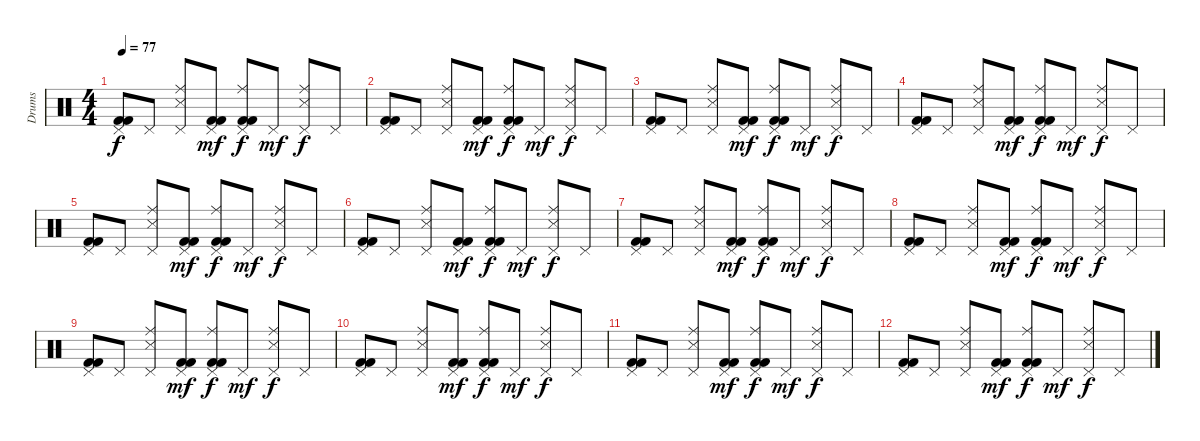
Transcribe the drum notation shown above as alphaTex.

\track ("Drums" "Drums") {instrument percussion}
\staff {score}
\articulation defaults
\ts (4 4)
\tempo 77
\clef neutral
\ks c
("Pedal Hi-Hat (hit)" "Kick (hit) 2" "Kick (hit) 2").8{dy f} "Pedal Hi-Hat (hit)".8 ("Pedal Hi-Hat (hit)" "Ride (middle)" "Snare (side stick) 3").8 ("Pedal Hi-Hat (hit)" "Kick (hit) 2" "Kick (hit) 2").8{dy mf} ("Pedal Hi-Hat (hit)" "Ride (middle)" "Kick (hit) 2" "Kick (hit) 2").8{dy f} "Pedal Hi-Hat (hit)".8{dy mf} ("Pedal Hi-Hat (hit)" "Ride (middle)" "Snare (side stick) 3").8{dy f} "Pedal Hi-Hat (hit)".8 |
("Pedal Hi-Hat (hit)" "Kick (hit) 2" "Kick (hit) 2").8 "Pedal Hi-Hat (hit)".8 ("Pedal Hi-Hat (hit)" "Ride (middle)" "Snare (side stick) 3").8 ("Pedal Hi-Hat (hit)" "Kick (hit) 2" "Kick (hit) 2").8{dy mf} ("Pedal Hi-Hat (hit)" "Ride (middle)" "Kick (hit) 2" "Kick (hit) 2").8{dy f} "Pedal Hi-Hat (hit)".8{dy mf} ("Pedal Hi-Hat (hit)" "Ride (middle)" "Snare (side stick) 3").8{dy f} "Pedal Hi-Hat (hit)".8 |
("Pedal Hi-Hat (hit)" "Kick (hit) 2" "Kick (hit) 2").8 "Pedal Hi-Hat (hit)".8 ("Pedal Hi-Hat (hit)" "Ride (middle)" "Snare (side stick) 3").8 ("Pedal Hi-Hat (hit)" "Kick (hit) 2" "Kick (hit) 2").8{dy mf} ("Pedal Hi-Hat (hit)" "Ride (middle)" "Kick (hit) 2" "Kick (hit) 2").8{dy f} "Pedal Hi-Hat (hit)".8{dy mf} ("Pedal Hi-Hat (hit)" "Ride (middle)" "Snare (side stick) 3").8{dy f} "Pedal Hi-Hat (hit)".8 |
("Pedal Hi-Hat (hit)" "Kick (hit) 2" "Kick (hit) 2").8 "Pedal Hi-Hat (hit)".8 ("Pedal Hi-Hat (hit)" "Ride (middle)" "Snare (side stick) 3").8 ("Pedal Hi-Hat (hit)" "Kick (hit) 2" "Kick (hit) 2").8{dy mf} ("Pedal Hi-Hat (hit)" "Ride (middle)" "Kick (hit) 2" "Kick (hit) 2").8{dy f} "Pedal Hi-Hat (hit)".8{dy mf} ("Pedal Hi-Hat (hit)" "Ride (middle)" "Snare (side stick) 3").8{dy f} "Pedal Hi-Hat (hit)".8 |
("Pedal Hi-Hat (hit)" "Kick (hit) 2" "Kick (hit) 2").8 "Pedal Hi-Hat (hit)".8 ("Pedal Hi-Hat (hit)" "Ride (middle)" "Snare (side stick) 3").8 ("Pedal Hi-Hat (hit)" "Kick (hit) 2" "Kick (hit) 2").8{dy mf} ("Pedal Hi-Hat (hit)" "Ride (middle)" "Kick (hit) 2" "Kick (hit) 2").8{dy f} "Pedal Hi-Hat (hit)".8{dy mf} ("Pedal Hi-Hat (hit)" "Ride (middle)" "Snare (side stick) 3").8{dy f} "Pedal Hi-Hat (hit)".8 |
("Pedal Hi-Hat (hit)" "Kick (hit) 2" "Kick (hit) 2").8 "Pedal Hi-Hat (hit)".8 ("Pedal Hi-Hat (hit)" "Ride (middle)" "Snare (side stick) 3").8 ("Pedal Hi-Hat (hit)" "Kick (hit) 2" "Kick (hit) 2").8{dy mf} ("Pedal Hi-Hat (hit)" "Ride (middle)" "Kick (hit) 2" "Kick (hit) 2").8{dy f} "Pedal Hi-Hat (hit)".8{dy mf} ("Pedal Hi-Hat (hit)" "Ride (middle)" "Snare (side stick) 3").8{dy f} "Pedal Hi-Hat (hit)".8 |
("Pedal Hi-Hat (hit)" "Kick (hit) 2" "Kick (hit) 2").8 "Pedal Hi-Hat (hit)".8 ("Pedal Hi-Hat (hit)" "Ride (middle)" "Snare (side stick) 3").8 ("Pedal Hi-Hat (hit)" "Kick (hit) 2" "Kick (hit) 2").8{dy mf} ("Pedal Hi-Hat (hit)" "Ride (middle)" "Kick (hit) 2" "Kick (hit) 2").8{dy f} "Pedal Hi-Hat (hit)".8{dy mf} ("Pedal Hi-Hat (hit)" "Ride (middle)" "Snare (side stick) 3").8{dy f} "Pedal Hi-Hat (hit)".8 |
("Pedal Hi-Hat (hit)" "Kick (hit) 2" "Kick (hit) 2").8 "Pedal Hi-Hat (hit)".8 ("Pedal Hi-Hat (hit)" "Ride (middle)" "Snare (side stick) 3").8 ("Pedal Hi-Hat (hit)" "Kick (hit) 2" "Kick (hit) 2").8{dy mf} ("Pedal Hi-Hat (hit)" "Ride (middle)" "Kick (hit) 2" "Kick (hit) 2").8{dy f} "Pedal Hi-Hat (hit)".8{dy mf} ("Pedal Hi-Hat (hit)" "Ride (middle)" "Snare (side stick) 3").8{dy f} "Pedal Hi-Hat (hit)".8 |
("Pedal Hi-Hat (hit)" "Kick (hit) 2" "Kick (hit) 2").8 "Pedal Hi-Hat (hit)".8 ("Pedal Hi-Hat (hit)" "Ride (middle)" "Snare (side stick) 3").8 ("Pedal Hi-Hat (hit)" "Kick (hit) 2" "Kick (hit) 2").8{dy mf} ("Pedal Hi-Hat (hit)" "Ride (middle)" "Kick (hit) 2" "Kick (hit) 2").8{dy f} "Pedal Hi-Hat (hit)".8{dy mf} ("Pedal Hi-Hat (hit)" "Ride (middle)" "Snare (side stick) 3").8{dy f} "Pedal Hi-Hat (hit)".8 |
("Pedal Hi-Hat (hit)" "Kick (hit) 2" "Kick (hit) 2").8 "Pedal Hi-Hat (hit)".8 ("Pedal Hi-Hat (hit)" "Ride (middle)" "Snare (side stick) 3").8 ("Pedal Hi-Hat (hit)" "Kick (hit) 2" "Kick (hit) 2").8{dy mf} ("Pedal Hi-Hat (hit)" "Ride (middle)" "Kick (hit) 2" "Kick (hit) 2").8{dy f} "Pedal Hi-Hat (hit)".8{dy mf} ("Pedal Hi-Hat (hit)" "Ride (middle)" "Snare (side stick) 3").8{dy f} "Pedal Hi-Hat (hit)".8 |
("Pedal Hi-Hat (hit)" "Kick (hit) 2" "Kick (hit) 2").8 "Pedal Hi-Hat (hit)".8 ("Pedal Hi-Hat (hit)" "Ride (middle)" "Snare (side stick) 3").8 ("Pedal Hi-Hat (hit)" "Kick (hit) 2" "Kick (hit) 2").8{dy mf} ("Pedal Hi-Hat (hit)" "Ride (middle)" "Kick (hit) 2" "Kick (hit) 2").8{dy f} "Pedal Hi-Hat (hit)".8{dy mf} ("Pedal Hi-Hat (hit)" "Ride (middle)" "Snare (side stick) 3").8{dy f} "Pedal Hi-Hat (hit)".8 |
("Pedal Hi-Hat (hit)" "Kick (hit) 2" "Kick (hit) 2").8 "Pedal Hi-Hat (hit)".8 ("Pedal Hi-Hat (hit)" "Ride (middle)" "Snare (side stick) 3").8 ("Pedal Hi-Hat (hit)" "Kick (hit) 2" "Kick (hit) 2").8{dy mf} ("Pedal Hi-Hat (hit)" "Ride (middle)" "Kick (hit) 2" "Kick (hit) 2").8{dy f} "Pedal Hi-Hat (hit)".8{dy mf} ("Pedal Hi-Hat (hit)" "Ride (middle)" "Snare (side stick) 3").8{dy f} "Pedal Hi-Hat (hit)".8
